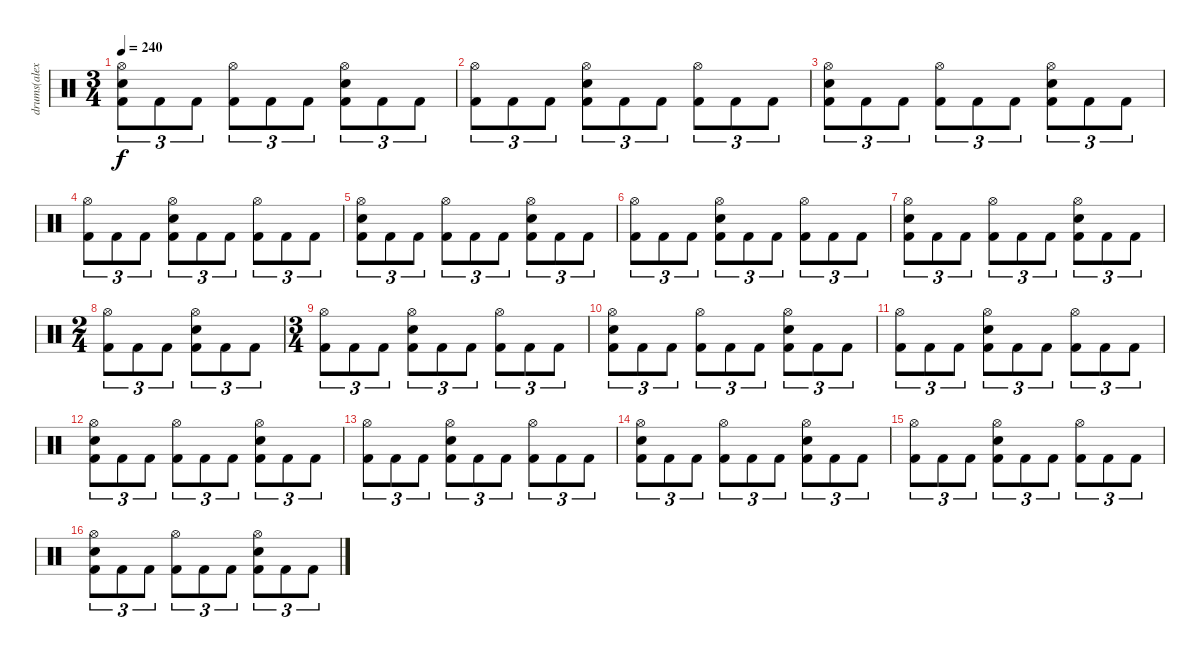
\track ("drums(alex holzshwart)" "drums(alex") {instrument percussion}
\staff {score}
\articulation defaults
\ts (3 4)
\tempo 240
\clef neutral
\ks c
("Hi-Hat (open)" "Electric Snare (hit)" "Kick (hit) 2").8{tu (3 2) dy f} "Kick (hit) 2".8{tu (3 2)} "Kick (hit) 2".8{tu (3 2)} ("Hi-Hat (open)" "Kick (hit) 2").8{tu (3 2)} "Kick (hit) 2".8{tu (3 2)} "Kick (hit) 2".8{tu (3 2)} ("Hi-Hat (open)" "Electric Snare (hit)" "Kick (hit) 2").8{tu (3 2)} "Kick (hit) 2".8{tu (3 2)} "Kick (hit) 2".8{tu (3 2)} |
("Hi-Hat (open)" "Kick (hit) 2").8{tu (3 2)} "Kick (hit) 2".8{tu (3 2)} "Kick (hit) 2".8{tu (3 2)} ("Hi-Hat (open)" "Electric Snare (hit)" "Kick (hit) 2").8{tu (3 2)} "Kick (hit) 2".8{tu (3 2)} "Kick (hit) 2".8{tu (3 2)} ("Hi-Hat (open)" "Kick (hit) 2").8{tu (3 2)} "Kick (hit) 2".8{tu (3 2)} "Kick (hit) 2".8{tu (3 2)} |
("Hi-Hat (open)" "Electric Snare (hit)" "Kick (hit) 2").8{tu (3 2)} "Kick (hit) 2".8{tu (3 2)} "Kick (hit) 2".8{tu (3 2)} ("Hi-Hat (open)" "Kick (hit) 2").8{tu (3 2)} "Kick (hit) 2".8{tu (3 2)} "Kick (hit) 2".8{tu (3 2)} ("Hi-Hat (open)" "Electric Snare (hit)" "Kick (hit) 2").8{tu (3 2)} "Kick (hit) 2".8{tu (3 2)} "Kick (hit) 2".8{tu (3 2)} |
("Hi-Hat (open)" "Kick (hit) 2").8{tu (3 2)} "Kick (hit) 2".8{tu (3 2)} "Kick (hit) 2".8{tu (3 2)} ("Hi-Hat (open)" "Electric Snare (hit)" "Kick (hit) 2").8{tu (3 2)} "Kick (hit) 2".8{tu (3 2)} "Kick (hit) 2".8{tu (3 2)} ("Hi-Hat (open)" "Kick (hit) 2").8{tu (3 2)} "Kick (hit) 2".8{tu (3 2)} "Kick (hit) 2".8{tu (3 2)} |
("Hi-Hat (open)" "Electric Snare (hit)" "Kick (hit) 2").8{tu (3 2)} "Kick (hit) 2".8{tu (3 2)} "Kick (hit) 2".8{tu (3 2)} ("Hi-Hat (open)" "Kick (hit) 2").8{tu (3 2)} "Kick (hit) 2".8{tu (3 2)} "Kick (hit) 2".8{tu (3 2)} ("Hi-Hat (open)" "Electric Snare (hit)" "Kick (hit) 2").8{tu (3 2)} "Kick (hit) 2".8{tu (3 2)} "Kick (hit) 2".8{tu (3 2)} |
("Hi-Hat (open)" "Kick (hit) 2").8{tu (3 2)} "Kick (hit) 2".8{tu (3 2)} "Kick (hit) 2".8{tu (3 2)} ("Hi-Hat (open)" "Electric Snare (hit)" "Kick (hit) 2").8{tu (3 2)} "Kick (hit) 2".8{tu (3 2)} "Kick (hit) 2".8{tu (3 2)} ("Hi-Hat (open)" "Kick (hit) 2").8{tu (3 2)} "Kick (hit) 2".8{tu (3 2)} "Kick (hit) 2".8{tu (3 2)} |
("Hi-Hat (open)" "Electric Snare (hit)" "Kick (hit) 2").8{tu (3 2)} "Kick (hit) 2".8{tu (3 2)} "Kick (hit) 2".8{tu (3 2)} ("Hi-Hat (open)" "Kick (hit) 2").8{tu (3 2)} "Kick (hit) 2".8{tu (3 2)} "Kick (hit) 2".8{tu (3 2)} ("Hi-Hat (open)" "Electric Snare (hit)" "Kick (hit) 2").8{tu (3 2)} "Kick (hit) 2".8{tu (3 2)} "Kick (hit) 2".8{tu (3 2)} |
\ts (2 4)
("Hi-Hat (open)" "Kick (hit) 2").8{tu (3 2)} "Kick (hit) 2".8{tu (3 2)} "Kick (hit) 2".8{tu (3 2)} ("Hi-Hat (open)" "Electric Snare (hit)" "Kick (hit) 2").8{tu (3 2)} "Kick (hit) 2".8{tu (3 2)} "Kick (hit) 2".8{tu (3 2)} |
\ts (3 4)
("Hi-Hat (open)" "Kick (hit) 2").8{tu (3 2)} "Kick (hit) 2".8{tu (3 2)} "Kick (hit) 2".8{tu (3 2)} ("Hi-Hat (open)" "Electric Snare (hit)" "Kick (hit) 2").8{tu (3 2)} "Kick (hit) 2".8{tu (3 2)} "Kick (hit) 2".8{tu (3 2)} ("Hi-Hat (open)" "Kick (hit) 2").8{tu (3 2)} "Kick (hit) 2".8{tu (3 2)} "Kick (hit) 2".8{tu (3 2)} |
("Hi-Hat (open)" "Electric Snare (hit)" "Kick (hit) 2").8{tu (3 2)} "Kick (hit) 2".8{tu (3 2)} "Kick (hit) 2".8{tu (3 2)} ("Hi-Hat (open)" "Kick (hit) 2").8{tu (3 2)} "Kick (hit) 2".8{tu (3 2)} "Kick (hit) 2".8{tu (3 2)} ("Hi-Hat (open)" "Electric Snare (hit)" "Kick (hit) 2").8{tu (3 2)} "Kick (hit) 2".8{tu (3 2)} "Kick (hit) 2".8{tu (3 2)} |
("Hi-Hat (open)" "Kick (hit) 2").8{tu (3 2)} "Kick (hit) 2".8{tu (3 2)} "Kick (hit) 2".8{tu (3 2)} ("Hi-Hat (open)" "Electric Snare (hit)" "Kick (hit) 2").8{tu (3 2)} "Kick (hit) 2".8{tu (3 2)} "Kick (hit) 2".8{tu (3 2)} ("Hi-Hat (open)" "Kick (hit) 2").8{tu (3 2)} "Kick (hit) 2".8{tu (3 2)} "Kick (hit) 2".8{tu (3 2)} |
("Hi-Hat (open)" "Electric Snare (hit)" "Kick (hit) 2").8{tu (3 2)} "Kick (hit) 2".8{tu (3 2)} "Kick (hit) 2".8{tu (3 2)} ("Hi-Hat (open)" "Kick (hit) 2").8{tu (3 2)} "Kick (hit) 2".8{tu (3 2)} "Kick (hit) 2".8{tu (3 2)} ("Hi-Hat (open)" "Electric Snare (hit)" "Kick (hit) 2").8{tu (3 2)} "Kick (hit) 2".8{tu (3 2)} "Kick (hit) 2".8{tu (3 2)} |
("Hi-Hat (open)" "Kick (hit) 2").8{tu (3 2)} "Kick (hit) 2".8{tu (3 2)} "Kick (hit) 2".8{tu (3 2)} ("Hi-Hat (open)" "Electric Snare (hit)" "Kick (hit) 2").8{tu (3 2)} "Kick (hit) 2".8{tu (3 2)} "Kick (hit) 2".8{tu (3 2)} ("Hi-Hat (open)" "Kick (hit) 2").8{tu (3 2)} "Kick (hit) 2".8{tu (3 2)} "Kick (hit) 2".8{tu (3 2)} |
("Hi-Hat (open)" "Electric Snare (hit)" "Kick (hit) 2").8{tu (3 2)} "Kick (hit) 2".8{tu (3 2)} "Kick (hit) 2".8{tu (3 2)} ("Hi-Hat (open)" "Kick (hit) 2").8{tu (3 2)} "Kick (hit) 2".8{tu (3 2)} "Kick (hit) 2".8{tu (3 2)} ("Hi-Hat (open)" "Electric Snare (hit)" "Kick (hit) 2").8{tu (3 2)} "Kick (hit) 2".8{tu (3 2)} "Kick (hit) 2".8{tu (3 2)} |
("Hi-Hat (open)" "Kick (hit) 2").8{tu (3 2)} "Kick (hit) 2".8{tu (3 2)} "Kick (hit) 2".8{tu (3 2)} ("Hi-Hat (open)" "Electric Snare (hit)" "Kick (hit) 2").8{tu (3 2)} "Kick (hit) 2".8{tu (3 2)} "Kick (hit) 2".8{tu (3 2)} ("Hi-Hat (open)" "Kick (hit) 2").8{tu (3 2)} "Kick (hit) 2".8{tu (3 2)} "Kick (hit) 2".8{tu (3 2)} |
("Hi-Hat (open)" "Electric Snare (hit)" "Kick (hit) 2").8{tu (3 2)} "Kick (hit) 2".8{tu (3 2)} "Kick (hit) 2".8{tu (3 2)} ("Hi-Hat (open)" "Kick (hit) 2").8{tu (3 2)} "Kick (hit) 2".8{tu (3 2)} "Kick (hit) 2".8{tu (3 2)} ("Hi-Hat (open)" "Electric Snare (hit)" "Kick (hit) 2").8{tu (3 2)} "Kick (hit) 2".8{tu (3 2)} "Kick (hit) 2".8{tu (3 2)}
